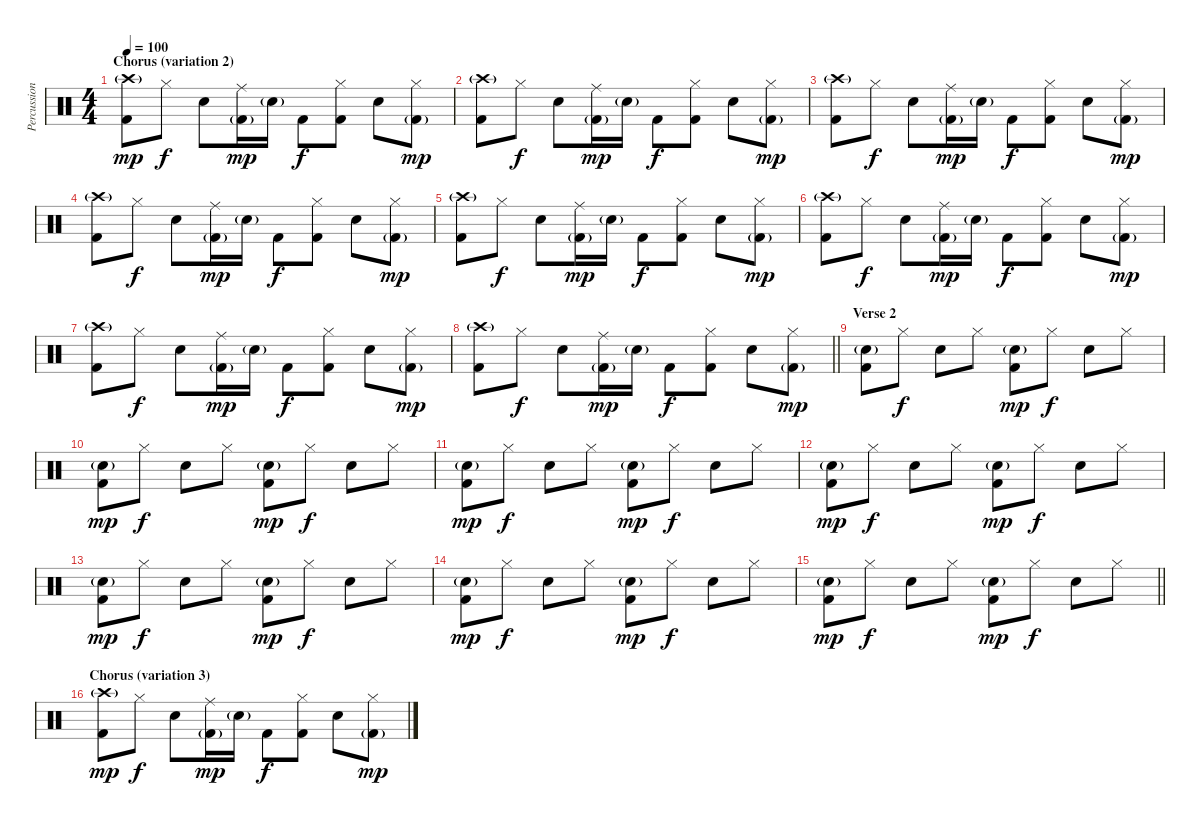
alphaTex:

\track ("Percussion" "Percussion") {instrument percussion}
\staff {score}
\articulation defaults
\ts (4 4)
\section ("" "Chorus (variation 2)")
\tempo 100
\clef neutral
\ks c
("Crash high (hit)"{g} "Kick (hit) 2").8{dy mp} "Hi-Hat (closed)".8{dy f} "Snare (hit) 2".8 ("Ride (middle)" "Kick (hit) 2"{g}).16{dy mp} "Snare (hit) 2"{g}.16 "Kick (hit) 2".8{dy f} ("Hi-Hat (closed)" "Kick (hit) 2").8 "Snare (hit) 2".8 ("Hi-Hat (closed)" "Kick (hit) 2"{g}).8{dy mp} |
("Crash high (hit)"{g} "Kick (hit) 2").8 "Hi-Hat (closed)".8{dy f} "Snare (hit) 2".8 ("Ride (middle)" "Kick (hit) 2"{g}).16{dy mp} "Snare (hit) 2"{g}.16 "Kick (hit) 2".8{dy f} ("Hi-Hat (closed)" "Kick (hit) 2").8 "Snare (hit) 2".8 ("Hi-Hat (closed)" "Kick (hit) 2"{g}).8{dy mp} |
("Crash high (hit)"{g} "Kick (hit) 2").8 "Hi-Hat (closed)".8{dy f} "Snare (hit) 2".8 ("Ride (middle)" "Kick (hit) 2"{g}).16{dy mp} "Snare (hit) 2"{g}.16 "Kick (hit) 2".8{dy f} ("Hi-Hat (closed)" "Kick (hit) 2").8 "Snare (hit) 2".8 ("Hi-Hat (closed)" "Kick (hit) 2"{g}).8{dy mp} |
("Crash high (hit)"{g} "Kick (hit) 2").8 "Hi-Hat (closed)".8{dy f} "Snare (hit) 2".8 ("Ride (middle)" "Kick (hit) 2"{g}).16{dy mp} "Snare (hit) 2"{g}.16 "Kick (hit) 2".8{dy f} ("Hi-Hat (closed)" "Kick (hit) 2").8 "Snare (hit) 2".8 ("Hi-Hat (closed)" "Kick (hit) 2"{g}).8{dy mp} |
("Crash high (hit)"{g} "Kick (hit) 2").8 "Hi-Hat (closed)".8{dy f} "Snare (hit) 2".8 ("Ride (middle)" "Kick (hit) 2"{g}).16{dy mp} "Snare (hit) 2"{g}.16 "Kick (hit) 2".8{dy f} ("Hi-Hat (closed)" "Kick (hit) 2").8 "Snare (hit) 2".8 ("Hi-Hat (closed)" "Kick (hit) 2"{g}).8{dy mp} |
("Crash high (hit)"{g} "Kick (hit) 2").8 "Hi-Hat (closed)".8{dy f} "Snare (hit) 2".8 ("Ride (middle)" "Kick (hit) 2"{g}).16{dy mp} "Snare (hit) 2"{g}.16 "Kick (hit) 2".8{dy f} ("Hi-Hat (closed)" "Kick (hit) 2").8 "Snare (hit) 2".8 ("Hi-Hat (closed)" "Kick (hit) 2"{g}).8{dy mp} |
("Crash high (hit)"{g} "Kick (hit) 2").8 "Hi-Hat (closed)".8{dy f} "Snare (hit) 2".8 ("Ride (middle)" "Kick (hit) 2"{g}).16{dy mp} "Snare (hit) 2"{g}.16 "Kick (hit) 2".8{dy f} ("Hi-Hat (closed)" "Kick (hit) 2").8 "Snare (hit) 2".8 ("Hi-Hat (closed)" "Kick (hit) 2"{g}).8{dy mp} |
\barLineRight lightlight
("Crash high (hit)"{g} "Kick (hit) 2").8 "Hi-Hat (closed)".8{dy f} "Snare (hit) 2".8 ("Ride (middle)" "Kick (hit) 2"{g}).16{dy mp} "Snare (hit) 2"{g}.16 "Kick (hit) 2".8{dy f} ("Hi-Hat (closed)" "Kick (hit) 2").8 "Snare (hit) 2".8 ("Hi-Hat (closed)" "Kick (hit) 2"{g}).8{dy mp} |
\section ("" "Verse 2")
("Snare (hit) 2"{g} "Kick (hit) 2").8 "Hi-Hat (closed)".8{dy f} "Snare (hit) 2".8 "Hi-Hat (closed)".8 ("Snare (hit) 2"{g} "Kick (hit) 2").8{dy mp} "Hi-Hat (closed)".8{dy f} "Snare (hit) 2".8 "Hi-Hat (closed)".8 |
("Snare (hit) 2"{g} "Kick (hit) 2").8{dy mp} "Hi-Hat (closed)".8{dy f} "Snare (hit) 2".8 "Hi-Hat (closed)".8 ("Snare (hit) 2"{g} "Kick (hit) 2").8{dy mp} "Hi-Hat (closed)".8{dy f} "Snare (hit) 2".8 "Hi-Hat (closed)".8 |
("Snare (hit) 2"{g} "Kick (hit) 2").8{dy mp} "Hi-Hat (closed)".8{dy f} "Snare (hit) 2".8 "Hi-Hat (closed)".8 ("Snare (hit) 2"{g} "Kick (hit) 2").8{dy mp} "Hi-Hat (closed)".8{dy f} "Snare (hit) 2".8 "Hi-Hat (closed)".8 |
("Snare (hit) 2"{g} "Kick (hit) 2").8{dy mp} "Hi-Hat (closed)".8{dy f} "Snare (hit) 2".8 "Hi-Hat (closed)".8 ("Snare (hit) 2"{g} "Kick (hit) 2").8{dy mp} "Hi-Hat (closed)".8{dy f} "Snare (hit) 2".8 "Hi-Hat (closed)".8 |
("Snare (hit) 2"{g} "Kick (hit) 2").8{dy mp} "Hi-Hat (closed)".8{dy f} "Snare (hit) 2".8 "Hi-Hat (closed)".8 ("Snare (hit) 2"{g} "Kick (hit) 2").8{dy mp} "Hi-Hat (closed)".8{dy f} "Snare (hit) 2".8 "Hi-Hat (closed)".8 |
("Snare (hit) 2"{g} "Kick (hit) 2").8{dy mp} "Hi-Hat (closed)".8{dy f} "Snare (hit) 2".8 "Hi-Hat (closed)".8 ("Snare (hit) 2"{g} "Kick (hit) 2").8{dy mp} "Hi-Hat (closed)".8{dy f} "Snare (hit) 2".8 "Hi-Hat (closed)".8 |
\barLineRight lightlight
("Snare (hit) 2"{g} "Kick (hit) 2").8{dy mp} "Hi-Hat (closed)".8{dy f} "Snare (hit) 2".8 "Hi-Hat (closed)".8 ("Snare (hit) 2"{g} "Kick (hit) 2").8{dy mp} "Hi-Hat (closed)".8{dy f} "Snare (hit) 2".8 "Hi-Hat (closed)".8 |
\section ("" "Chorus (variation 3)")
("Crash high (hit)"{g} "Kick (hit) 2").8{dy mp} "Hi-Hat (closed)".8{dy f} "Snare (hit) 2".8 ("Ride (middle)" "Kick (hit) 2"{g}).16{dy mp} "Snare (hit) 2"{g}.16 "Kick (hit) 2".8{dy f} ("Hi-Hat (closed)" "Kick (hit) 2").8 "Snare (hit) 2".8 ("Hi-Hat (closed)" "Kick (hit) 2"{g}).8{dy mp}
